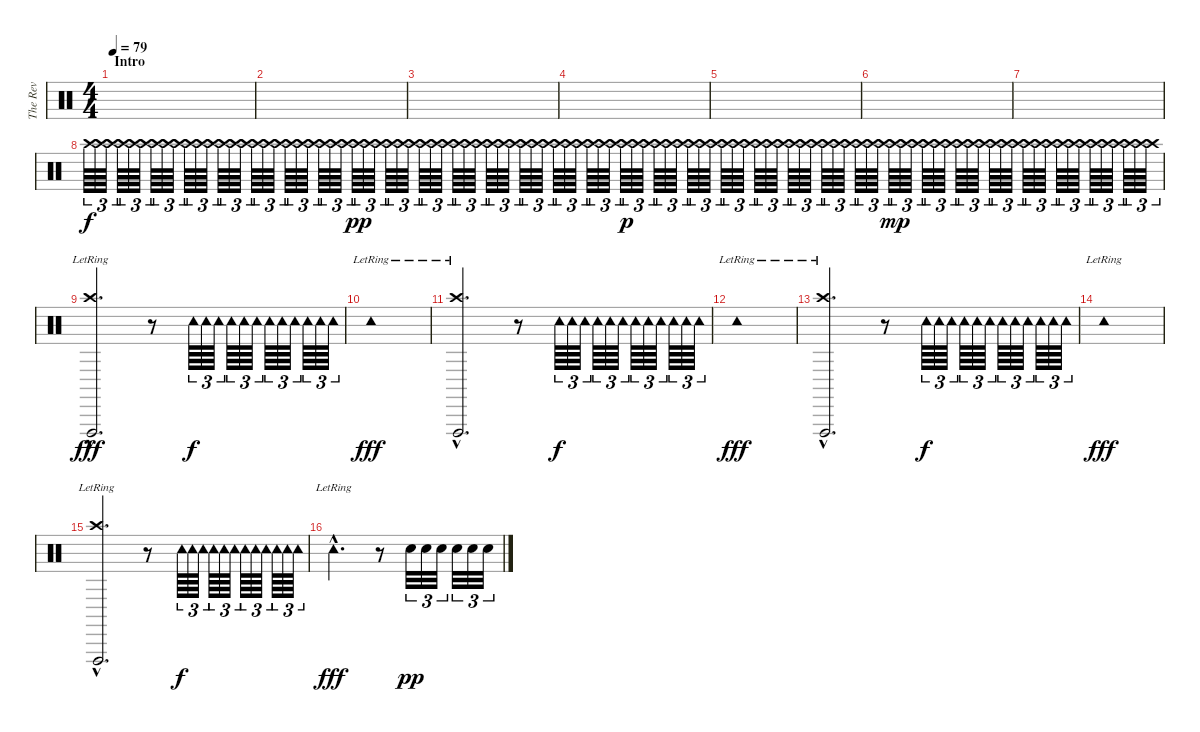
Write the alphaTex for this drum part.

\track ("The Rev" "The Rev") {instrument percussion}
\staff {score}
\articulation defaults
\ts (4 4)
\section ("" "Intro")
\tempo 79
\clef neutral
\ks c
|
|
|
|
|
|
|
"Crash high (hit)".64{tu (3 2)} "Crash high (hit)".64{tu (3 2)} "Crash high (hit)".64{tu (3 2)} "Crash high (hit)".64{tu (3 2)} "Crash high (hit)".64{tu (3 2)} "Crash high (hit)".64{tu (3 2)} "Crash high (hit)".64{tu (3 2)} "Crash high (hit)".64{tu (3 2)} "Crash high (hit)".64{tu (3 2)} "Crash high (hit)".64{tu (3 2)} "Crash high (hit)".64{tu (3 2)} "Crash high (hit)".64{tu (3 2)} "Crash high (hit)".64{tu (3 2)} "Crash high (hit)".64{tu (3 2)} "Crash high (hit)".64{tu (3 2)} "Crash high (hit)".64{tu (3 2)} "Crash high (hit)".64{tu (3 2)} "Crash high (hit)".64{tu (3 2)} "Crash high (hit)".64{tu (3 2)} "Crash high (hit)".64{tu (3 2)} "Crash high (hit)".64{tu (3 2)} "Crash high (hit)".64{tu (3 2)} "Crash high (hit)".64{tu (3 2)} "Crash high (hit)".64{tu (3 2)} "Crash high (hit)".64{tu (3 2) dy pp} "Crash high (hit)".64{tu (3 2)} "Crash high (hit)".64{tu (3 2)} "Crash high (hit)".64{tu (3 2)} "Crash high (hit)".64{tu (3 2)} "Crash high (hit)".64{tu (3 2)} "Crash high (hit)".64{tu (3 2)} "Crash high (hit)".64{tu (3 2)} "Crash high (hit)".64{tu (3 2)} "Crash high (hit)".64{tu (3 2)} "Crash high (hit)".64{tu (3 2)} "Crash high (hit)".64{tu (3 2)} "Crash high (hit)".64{tu (3 2)} "Crash high (hit)".64{tu (3 2)} "Crash high (hit)".64{tu (3 2)} "Crash high (hit)".64{tu (3 2)} "Crash high (hit)".64{tu (3 2)} "Crash high (hit)".64{tu (3 2)} "Crash high (hit)".64{tu (3 2)} "Crash high (hit)".64{tu (3 2)} "Crash high (hit)".64{tu (3 2)} "Crash high (hit)".64{tu (3 2)} "Crash high (hit)".64{tu (3 2)} "Crash high (hit)".64{tu (3 2)} "Crash high (hit)".64{tu (3 2) dy p} "Crash high (hit)".64{tu (3 2)} "Crash high (hit)".64{tu (3 2)} "Crash high (hit)".64{tu (3 2)} "Crash high (hit)".64{tu (3 2)} "Crash high (hit)".64{tu (3 2)} "Crash high (hit)".64{tu (3 2)} "Crash high (hit)".64{tu (3 2)} "Crash high (hit)".64{tu (3 2)} "Crash high (hit)".64{tu (3 2)} "Crash high (hit)".64{tu (3 2)} "Crash high (hit)".64{tu (3 2)} "Crash high (hit)".64{tu (3 2)} "Crash high (hit)".64{tu (3 2)} "Crash high (hit)".64{tu (3 2)} "Crash high (hit)".64{tu (3 2)} "Crash high (hit)".64{tu (3 2)} "Crash high (hit)".64{tu (3 2)} "Crash high (hit)".64{tu (3 2)} "Crash high (hit)".64{tu (3 2)} "Crash high (hit)".64{tu (3 2)} "Crash high (hit)".64{tu (3 2)} "Crash high (hit)".64{tu (3 2)} "Crash high (hit)".64{tu (3 2)} "Crash high (hit)".64{tu (3 2) dy mp} "Crash high (hit)".64{tu (3 2)} "Crash high (hit)".64{tu (3 2)} "Crash high (hit)".64{tu (3 2)} "Crash high (hit)".64{tu (3 2)} "Crash high (hit)".64{tu (3 2)} "Crash high (hit)".64{tu (3 2)} "Crash high (hit)".64{tu (3 2)} "Crash high (hit)".64{tu (3 2)} "Crash high (hit)".64{tu (3 2)} "Crash high (hit)".64{tu (3 2)} "Crash high (hit)".64{tu (3 2)} "Crash high (hit)".64{tu (3 2)} "Crash high (hit)".64{tu (3 2)} "Crash high (hit)".64{tu (3 2)} "Crash high (hit)".64{tu (3 2)} "Crash high (hit)".64{tu (3 2)} "Crash high (hit)".64{tu (3 2)} "Crash high (hit)".64{tu (3 2)} "Crash high (hit)".64{tu (3 2)} "Crash high (hit)".64{tu (3 2)} "Crash high (hit)".64{tu (3 2)} "Crash high (hit)".64{tu (3 2)} "Crash high (hit)".64{tu (3 2)} |
("Crash high (hit)"{hac lr} "Vibraslap (hit)"{hac}).2{d dy fff} r.8 "Tambourine (hit)".64{tu (3 2) dy f} "Tambourine (hit)".64{tu (3 2)} "Tambourine (hit)".64{tu (3 2)} "Tambourine (hit)".64{tu (3 2)} "Tambourine (hit)".64{tu (3 2)} "Tambourine (hit)".64{tu (3 2)} "Tambourine (hit)".64{tu (3 2)} "Tambourine (hit)".64{tu (3 2)} "Tambourine (hit)".64{tu (3 2)} "Tambourine (hit)".64{tu (3 2)} "Tambourine (hit)".64{tu (3 2)} "Tambourine (hit)".64{tu (3 2)} |
"Tambourine (hit)"{lr}.1{dy fff} |
("Crash high (hit)"{hac lr} "Vibraslap (hit)"{hac}).2{d} r.8 "Tambourine (hit)".64{tu (3 2) dy f} "Tambourine (hit)".64{tu (3 2)} "Tambourine (hit)".64{tu (3 2)} "Tambourine (hit)".64{tu (3 2)} "Tambourine (hit)".64{tu (3 2)} "Tambourine (hit)".64{tu (3 2)} "Tambourine (hit)".64{tu (3 2)} "Tambourine (hit)".64{tu (3 2)} "Tambourine (hit)".64{tu (3 2)} "Tambourine (hit)".64{tu (3 2)} "Tambourine (hit)".64{tu (3 2)} "Tambourine (hit)".64{tu (3 2)} |
"Tambourine (hit)"{lr}.1{dy fff} |
("Crash high (hit)"{hac lr} "Vibraslap (hit)"{hac}).2{d} r.8 "Tambourine (hit)".64{tu (3 2) dy f} "Tambourine (hit)".64{tu (3 2)} "Tambourine (hit)".64{tu (3 2)} "Tambourine (hit)".64{tu (3 2)} "Tambourine (hit)".64{tu (3 2)} "Tambourine (hit)".64{tu (3 2)} "Tambourine (hit)".64{tu (3 2)} "Tambourine (hit)".64{tu (3 2)} "Tambourine (hit)".64{tu (3 2)} "Tambourine (hit)".64{tu (3 2)} "Tambourine (hit)".64{tu (3 2)} "Tambourine (hit)".64{tu (3 2)} |
"Tambourine (hit)"{lr}.1{dy fff} |
("Crash high (hit)"{hac lr} "Vibraslap (hit)"{hac}).2{d} r.8 "Tambourine (hit)".64{tu (3 2) dy f} "Tambourine (hit)".64{tu (3 2)} "Tambourine (hit)".64{tu (3 2)} "Tambourine (hit)".64{tu (3 2)} "Tambourine (hit)".64{tu (3 2)} "Tambourine (hit)".64{tu (3 2)} "Tambourine (hit)".64{tu (3 2)} "Tambourine (hit)".64{tu (3 2)} "Tambourine (hit)".64{tu (3 2)} "Tambourine (hit)".64{tu (3 2)} "Tambourine (hit)".64{tu (3 2)} "Tambourine (hit)".64{tu (3 2)} |
"Tambourine (hit)"{hac lr}.2{d dy fff} r.8 "Electric Snare (hit)".32{tu (3 2) dy pp} "Electric Snare (hit)".32{tu (3 2)} "Electric Snare (hit)".32{tu (3 2)} "Electric Snare (hit)".32{tu (3 2)} "Electric Snare (hit)".32{tu (3 2)} "Electric Snare (hit)".32{tu (3 2)}
